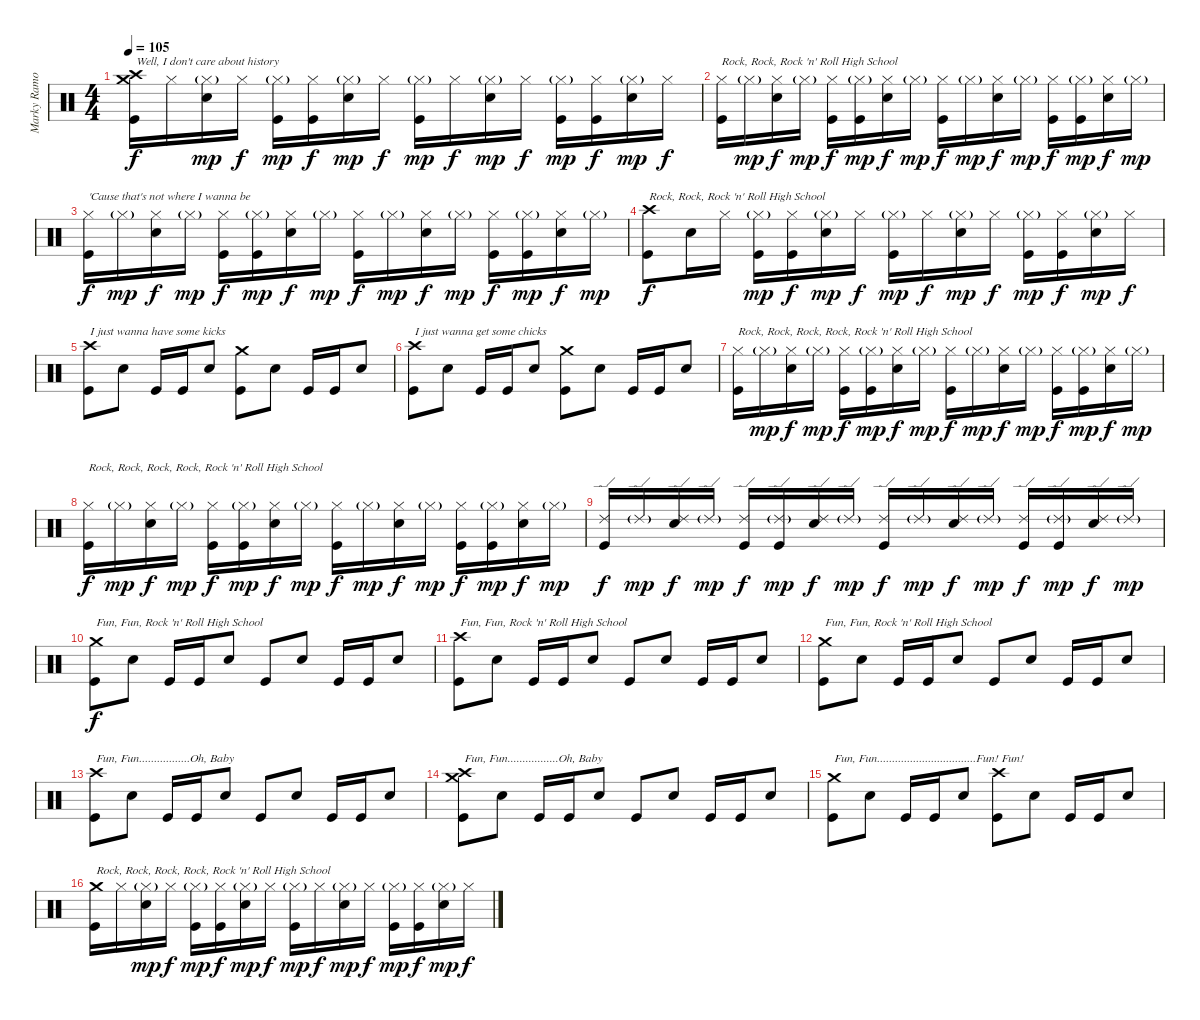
\track ("Marky Ramone - Drums" "Marky Ramo") {instrument percussion}
\staff {score}
\articulation defaults
\ts (4 4)
\tempo 105
\clef neutral
\ks c
("Crash medium (hit)" "Crash high (hit)" "Kick (hit)").16{txt "Well, I don't care about history" dy f} "Hi-Hat (closed)".16 ("Hi-Hat (closed)"{g} "Snare (hit) 2").16{dy mp} "Hi-Hat (closed)".16{dy f} ("Hi-Hat (closed)"{g} "Kick (hit)").16{dy mp} ("Hi-Hat (closed)" "Kick (hit)").16{dy f} ("Hi-Hat (closed)"{g} "Snare (hit) 2").16{dy mp} "Hi-Hat (closed)".16{dy f} ("Hi-Hat (closed)"{g} "Kick (hit)").16{dy mp} "Hi-Hat (closed)".16{dy f} ("Hi-Hat (closed)"{g} "Snare (hit) 2").16{dy mp} "Hi-Hat (closed)".16{dy f} ("Hi-Hat (closed)"{g} "Kick (hit)").16{dy mp} ("Hi-Hat (closed)" "Kick (hit)").16{dy f} ("Hi-Hat (closed)"{g} "Snare (hit) 2").16{dy mp} "Hi-Hat (closed)".16{dy f} |
("Hi-Hat (closed)" "Kick (hit)").16{txt "Rock, Rock, Rock 'n' Roll High School"} "Hi-Hat (closed)"{g}.16{dy mp} ("Hi-Hat (closed)" "Snare (hit) 2").16{dy f} "Hi-Hat (closed)"{g}.16{dy mp} ("Hi-Hat (closed)" "Kick (hit)").16{dy f} ("Hi-Hat (closed)"{g} "Kick (hit)").16{dy mp} ("Hi-Hat (closed)" "Snare (hit) 2").16{dy f} "Hi-Hat (closed)"{g}.16{dy mp} ("Hi-Hat (closed)" "Kick (hit)").16{dy f} "Hi-Hat (closed)"{g}.16{dy mp} ("Hi-Hat (closed)" "Snare (hit) 2").16{dy f} "Hi-Hat (closed)"{g}.16{dy mp} ("Hi-Hat (closed)" "Kick (hit)").16{dy f} ("Hi-Hat (closed)"{g} "Kick (hit)").16{dy mp} ("Hi-Hat (closed)" "Snare (hit) 2").16{dy f} "Hi-Hat (closed)"{g}.16{dy mp} |
("Hi-Hat (closed)" "Kick (hit)").16{txt "'Cause that's not where I wanna be" dy f} "Hi-Hat (closed)"{g}.16{dy mp} ("Hi-Hat (closed)" "Snare (hit) 2").16{dy f} "Hi-Hat (closed)"{g}.16{dy mp} ("Hi-Hat (closed)" "Kick (hit)").16{dy f} ("Hi-Hat (closed)"{g} "Kick (hit)").16{dy mp} ("Hi-Hat (closed)" "Snare (hit) 2").16{dy f} "Hi-Hat (closed)"{g}.16{dy mp} ("Hi-Hat (closed)" "Kick (hit)").16{dy f} "Hi-Hat (closed)"{g}.16{dy mp} ("Hi-Hat (closed)" "Snare (hit) 2").16{dy f} "Hi-Hat (closed)"{g}.16{dy mp} ("Hi-Hat (closed)" "Kick (hit)").16{dy f} ("Hi-Hat (closed)"{g} "Kick (hit)").16{dy mp} ("Hi-Hat (closed)" "Snare (hit) 2").16{dy f} "Hi-Hat (closed)"{g}.16{dy mp} |
("Crash high (hit)" "Kick (hit)").8{txt "Rock, Rock, Rock 'n' Roll High School" dy f} "Snare (hit) 2".16 "Hi-Hat (closed)".16 ("Hi-Hat (closed)"{g} "Kick (hit)").16{dy mp} ("Hi-Hat (closed)" "Kick (hit)").16{dy f} ("Hi-Hat (closed)"{g} "Snare (hit) 2").16{dy mp} "Hi-Hat (closed)".16{dy f} ("Hi-Hat (closed)"{g} "Kick (hit)").16{dy mp} "Hi-Hat (closed)".16{dy f} ("Hi-Hat (closed)"{g} "Snare (hit) 2").16{dy mp} "Hi-Hat (closed)".16{dy f} ("Hi-Hat (closed)"{g} "Kick (hit)").16{dy mp} ("Hi-Hat (closed)" "Kick (hit)").16{dy f} ("Hi-Hat (closed)"{g} "Snare (hit) 2").16{dy mp} "Hi-Hat (closed)".16{dy f} |
("Crash high (hit)" "Kick (hit)").8{txt "I just wanna have some kicks"} "Snare (hit) 2".8 "Kick (hit)".16 "Kick (hit)".16 "Snare (hit) 2".8 ("Crash medium (hit)" "Kick (hit)").8 "Snare (hit) 2".8 "Kick (hit)".16 "Kick (hit)".16 "Snare (hit) 2".8 |
("Crash high (hit)" "Kick (hit)").8{txt "I just wanna get some chicks"} "Snare (hit) 2".8 "Kick (hit)".16 "Kick (hit)".16 "Snare (hit) 2".8 ("Crash medium (hit)" "Kick (hit)").8 "Snare (hit) 2".8 "Kick (hit)".16 "Kick (hit)".16 "Snare (hit) 2".8 |
("Hi-Hat (closed)" "Kick (hit)").16{txt "Rock, Rock, Rock, Rock, Rock 'n' Roll High School"} "Hi-Hat (closed)"{g}.16{dy mp} ("Hi-Hat (closed)" "Snare (hit) 2").16{dy f} "Hi-Hat (closed)"{g}.16{dy mp} ("Hi-Hat (closed)" "Kick (hit)").16{dy f} ("Hi-Hat (closed)"{g} "Kick (hit)").16{dy mp} ("Hi-Hat (closed)" "Snare (hit) 2").16{dy f} "Hi-Hat (closed)"{g}.16{dy mp} ("Hi-Hat (closed)" "Kick (hit)").16{dy f} "Hi-Hat (closed)"{g}.16{dy mp} ("Hi-Hat (closed)" "Snare (hit) 2").16{dy f} "Hi-Hat (closed)"{g}.16{dy mp} ("Hi-Hat (closed)" "Kick (hit)").16{dy f} ("Hi-Hat (closed)"{g} "Kick (hit)").16{dy mp} ("Hi-Hat (closed)" "Snare (hit) 2").16{dy f} "Hi-Hat (closed)"{g}.16{dy mp} |
("Hi-Hat (closed)" "Kick (hit)").16{txt "Rock, Rock, Rock, Rock, Rock 'n' Roll High School" dy f} "Hi-Hat (closed)"{g}.16{dy mp} ("Hi-Hat (closed)" "Snare (hit) 2").16{dy f} "Hi-Hat (closed)"{g}.16{dy mp} ("Hi-Hat (closed)" "Kick (hit)").16{dy f} ("Hi-Hat (closed)"{g} "Kick (hit)").16{dy mp} ("Hi-Hat (closed)" "Snare (hit) 2").16{dy f} "Hi-Hat (closed)"{g}.16{dy mp} ("Hi-Hat (closed)" "Kick (hit)").16{dy f} "Hi-Hat (closed)"{g}.16{dy mp} ("Hi-Hat (closed)" "Snare (hit) 2").16{dy f} "Hi-Hat (closed)"{g}.16{dy mp} ("Hi-Hat (closed)" "Kick (hit)").16{dy f} ("Hi-Hat (closed)"{g} "Kick (hit)").16{dy mp} ("Hi-Hat (closed)" "Snare (hit) 2").16{dy f} "Hi-Hat (closed)"{g}.16{dy mp} |
("Ride (edge) 2" "Kick (hit)").16{dy f} "Ride (edge) 2"{g}.16{dy mp} ("Ride (edge) 2" "Snare (hit) 2").16{dy f} "Ride (edge) 2"{g}.16{dy mp} ("Ride (edge) 2" "Kick (hit)").16{dy f} ("Ride (edge) 2"{g} "Kick (hit)").16{dy mp} ("Ride (edge) 2" "Snare (hit) 2").16{dy f} "Ride (edge) 2"{g}.16{dy mp} ("Ride (edge) 2" "Kick (hit)").16{dy f} "Ride (edge) 2"{g}.16{dy mp} ("Ride (edge) 2" "Snare (hit) 2").16{dy f} "Ride (edge) 2"{g}.16{dy mp} ("Ride (edge) 2" "Kick (hit)").16{dy f} ("Ride (edge) 2"{g} "Kick (hit)").16{dy mp} ("Ride (edge) 2" "Snare (hit) 2").16{dy f} "Ride (edge) 2"{g}.16{dy mp} |
("Crash medium (hit)" "Kick (hit)").8{txt "Fun, Fun, Rock 'n' Roll High School" dy f} "Snare (hit) 2".8 "Kick (hit)".16 "Kick (hit)".16 "Snare (hit) 2".8 "Kick (hit)".8 "Snare (hit) 2".8 "Kick (hit)".16 "Kick (hit)".16 "Snare (hit) 2".8 |
("Crash high (hit)" "Kick (hit)").8{txt "Fun, Fun, Rock 'n' Roll High School"} "Snare (hit) 2".8 "Kick (hit)".16 "Kick (hit)".16 "Snare (hit) 2".8 "Kick (hit)".8 "Snare (hit) 2".8 "Kick (hit)".16 "Kick (hit)".16 "Snare (hit) 2".8 |
("Crash medium (hit)" "Kick (hit)").8{txt "Fun, Fun, Rock 'n' Roll High School"} "Snare (hit) 2".8 "Kick (hit)".16 "Kick (hit)".16 "Snare (hit) 2".8 "Kick (hit)".8 "Snare (hit) 2".8 "Kick (hit)".16 "Kick (hit)".16 "Snare (hit) 2".8 |
("Crash high (hit)" "Kick (hit)").8{txt "Fun, Fun.................Oh, Baby"} "Snare (hit) 2".8 "Kick (hit)".16 "Kick (hit)".16 "Snare (hit) 2".8 "Kick (hit)".8 "Snare (hit) 2".8 "Kick (hit)".16 "Kick (hit)".16 "Snare (hit) 2".8 |
("Crash medium (hit)" "Crash high (hit)" "Kick (hit)").8{txt "Fun, Fun.................Oh, Baby"} "Snare (hit) 2".8 "Kick (hit)".16 "Kick (hit)".16 "Snare (hit) 2".8 "Kick (hit)".8 "Snare (hit) 2".8 "Kick (hit)".16 "Kick (hit)".16 "Snare (hit) 2".8 |
("Crash medium (hit)" "Kick (hit)").8{txt "Fun, Fun.................................Fun! Fun!"} "Snare (hit) 2".8 "Kick (hit)".16 "Kick (hit)".16 "Snare (hit) 2".8 ("Crash high (hit)" "Kick (hit)").8 "Snare (hit) 2".8 "Kick (hit)".16 "Kick (hit)".16 "Snare (hit) 2".8 |
("Crash medium (hit)" "Kick (hit)").16{txt "Rock, Rock, Rock, Rock, Rock 'n' Roll High School"} "Hi-Hat (closed)".16 ("Hi-Hat (closed)"{g} "Snare (hit) 2").16{dy mp} "Hi-Hat (closed)".16{dy f} ("Hi-Hat (closed)"{g} "Kick (hit)").16{dy mp} ("Hi-Hat (closed)" "Kick (hit)").16{dy f} ("Hi-Hat (closed)"{g} "Snare (hit) 2").16{dy mp} "Hi-Hat (closed)".16{dy f} ("Hi-Hat (closed)"{g} "Kick (hit)").16{dy mp} "Hi-Hat (closed)".16{dy f} ("Hi-Hat (closed)"{g} "Snare (hit) 2").16{dy mp} "Hi-Hat (closed)".16{dy f} ("Hi-Hat (closed)"{g} "Kick (hit)").16{dy mp} ("Hi-Hat (closed)" "Kick (hit)").16{dy f} ("Hi-Hat (closed)"{g} "Snare (hit) 2").16{dy mp} "Hi-Hat (closed)".16{dy f}
